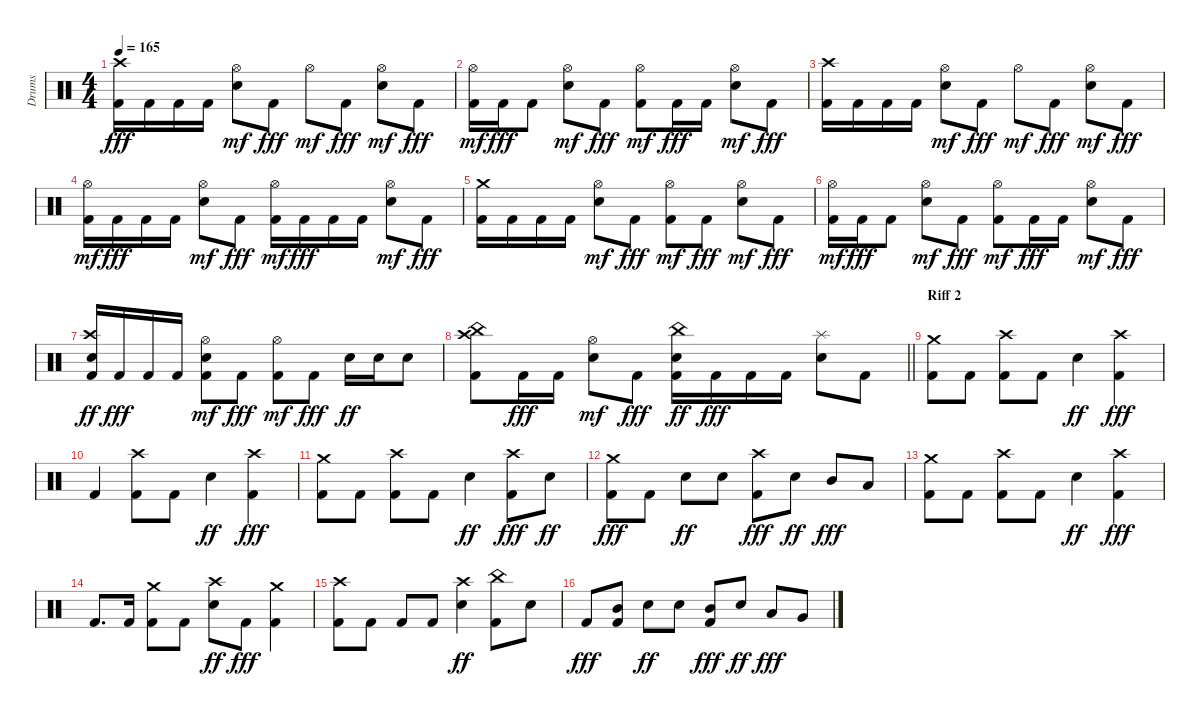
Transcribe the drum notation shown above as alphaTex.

\track ("Drums" "Drums") {instrument percussion}
\staff {score}
\articulation defaults
\ts (4 4)
\tempo 165
\clef neutral
\ks c
("Kick (hit) 2" "Crash high (hit)").16{dy fff} "Kick (hit) 2".16 "Kick (hit) 2".16 "Kick (hit) 2".16 ("Snare (hit) 2" "Hi-Hat (open)").8{dy mf} "Kick (hit) 2".8{dy fff} "Hi-Hat (open)".8{dy mf} "Kick (hit) 2".8{dy fff} ("Snare (hit) 2" "Hi-Hat (open)").8{dy mf} "Kick (hit) 2".8{dy fff} |
("Kick (hit) 2" "Hi-Hat (open)").16{dy mf} "Kick (hit) 2".16{dy fff} "Kick (hit) 2".8 ("Snare (hit) 2" "Hi-Hat (open)").8{dy mf} "Kick (hit) 2".8{dy fff} ("Kick (hit) 2" "Hi-Hat (open)").8{dy mf} "Kick (hit) 2".16{dy fff} "Kick (hit) 2".16 ("Snare (hit) 2" "Hi-Hat (open)").8{dy mf} "Kick (hit) 2".8{dy fff} |
("Kick (hit) 2" "Crash high (hit)").16 "Kick (hit) 2".16 "Kick (hit) 2".16 "Kick (hit) 2".16 ("Snare (hit) 2" "Hi-Hat (open)").8{dy mf} "Kick (hit) 2".8{dy fff} "Hi-Hat (open)".8{dy mf} "Kick (hit) 2".8{dy fff} ("Snare (hit) 2" "Hi-Hat (open)").8{dy mf} "Kick (hit) 2".8{dy fff} |
("Kick (hit) 2" "Hi-Hat (open)").16{dy mf} "Kick (hit) 2".16{dy fff} "Kick (hit) 2".16 "Kick (hit) 2".16 ("Snare (hit) 2" "Hi-Hat (open)").8{dy mf} "Kick (hit) 2".8{dy fff} ("Kick (hit) 2" "Hi-Hat (open)").16{dy mf} "Kick (hit) 2".16{dy fff} "Kick (hit) 2".16 "Kick (hit) 2".16 ("Snare (hit) 2" "Hi-Hat (open)").8{dy mf} "Kick (hit) 2".8{dy fff} |
("Kick (hit) 2" "Crash medium (hit)").16 "Kick (hit) 2".16 "Kick (hit) 2".16 "Kick (hit) 2".16 ("Snare (hit) 2" "Hi-Hat (open)").8{dy mf} "Kick (hit) 2".8{dy fff} ("Kick (hit) 2" "Hi-Hat (open)").8{dy mf} "Kick (hit) 2".8{dy fff} ("Snare (hit) 2" "Hi-Hat (open)").8{dy mf} "Kick (hit) 2".8{dy fff} |
("Kick (hit) 2" "Hi-Hat (open)").16{dy mf} "Kick (hit) 2".16{dy fff} "Kick (hit) 2".8 ("Snare (hit) 2" "Hi-Hat (open)").8{dy mf} "Kick (hit) 2".8{dy fff} ("Kick (hit) 2" "Hi-Hat (open)").8{dy mf} "Kick (hit) 2".16{dy fff} "Kick (hit) 2".16 ("Snare (hit) 2" "Hi-Hat (open)").8{dy mf} "Kick (hit) 2".8{dy fff} |
("Kick (hit) 2" "Snare (hit) 2" "Crash high (hit)").16{dy ff} "Kick (hit) 2".16{dy fff} "Kick (hit) 2".16 "Kick (hit) 2".16 ("Kick (hit) 2" "Snare (hit) 2" "Hi-Hat (open)").8{dy mf} "Kick (hit) 2".8{dy fff} ("Kick (hit) 2" "Hi-Hat (open)").8{dy mf} "Kick (hit) 2".8{dy fff} "Snare (hit) 2".16{dy ff} "Snare (hit) 2".16 "Snare (hit) 2".8 |
\barLineRight lightlight
("Kick (hit) 2" "Crash high (hit)" "China (hit)").8 "Kick (hit) 2".16{dy fff} "Kick (hit) 2".16 ("Snare (hit) 2" "Hi-Hat (open)").8{dy mf} "Kick (hit) 2".8{dy fff} ("Kick (hit) 2" "Snare (hit) 2" "China (hit)").16{dy ff} "Kick (hit) 2".16{dy fff} "Kick (hit) 2".16 "Kick (hit) 2".16 ("Snare (hit) 2" "Splash (hit)").8 "Kick (hit) 2".8 |
\section ("" "Riff 2")
("Kick (hit) 2" "Crash medium (hit)").8 "Kick (hit) 2".8 ("Kick (hit) 2" "Crash high (hit)").8 "Kick (hit) 2".8 "Snare (hit) 2".4{dy ff} ("Kick (hit) 2" "Crash high (hit)").4{dy fff} |
"Kick (hit) 2".4 ("Kick (hit) 2" "Crash high (hit)").8 "Kick (hit) 2".8 "Snare (hit) 2".4{dy ff} ("Kick (hit) 2" "Crash high (hit)").4{dy fff} |
("Kick (hit) 2" "Crash medium (hit)").8 "Kick (hit) 2".8 ("Kick (hit) 2" "Crash high (hit)").8 "Kick (hit) 2".8 "Snare (hit) 2".4{dy ff} ("Kick (hit) 2" "Crash high (hit)").8{dy fff} "Snare (hit) 2".8{dy ff} |
("Kick (hit) 2" "Crash medium (hit)").8{dy fff} "Kick (hit) 2".8 "Snare (hit) 2".8{dy ff} "Snare (hit) 2".8 ("Kick (hit) 2" "Crash high (hit)").8{dy fff} "Snare (hit) 2".8{dy ff} "Mid Tom (hit)".8{dy fff} "Low Tom (hit)".8 |
("Kick (hit) 2" "Crash medium (hit)").8 "Kick (hit) 2".8 ("Kick (hit) 2" "Crash high (hit)").8 "Kick (hit) 2".8 "Snare (hit) 2".4{dy ff} ("Kick (hit) 2" "Crash high (hit)").4{dy fff} |
"Kick (hit) 2".8{d} "Kick (hit) 2".16 ("Kick (hit) 2" "Crash medium (hit)").8 "Kick (hit) 2".8 ("Snare (hit) 2" "Crash high (hit)").8{dy ff} "Kick (hit) 2".8{dy fff} ("Kick (hit) 2" "Crash medium (hit)").4 |
("Kick (hit) 2" "Crash high (hit)").8 "Kick (hit) 2".8 "Kick (hit) 2".8 "Kick (hit) 2".8 ("Snare (hit) 2" "Crash high (hit)").4{dy ff} ("Kick (hit) 2" "China (hit)").8 "Snare (hit) 2".8 |
"Kick (hit) 2".8{dy fff} ("Kick (hit) 2" "Mid Tom (hit)").8 "Snare (hit) 2".8{dy ff} "Snare (hit) 2".8 ("Kick (hit) 2" "Mid Tom (hit)").8{dy fff} "Snare (hit) 2".8{dy ff} "Low Tom (hit)".8{dy fff} "Very Low Tom (hit)".8
